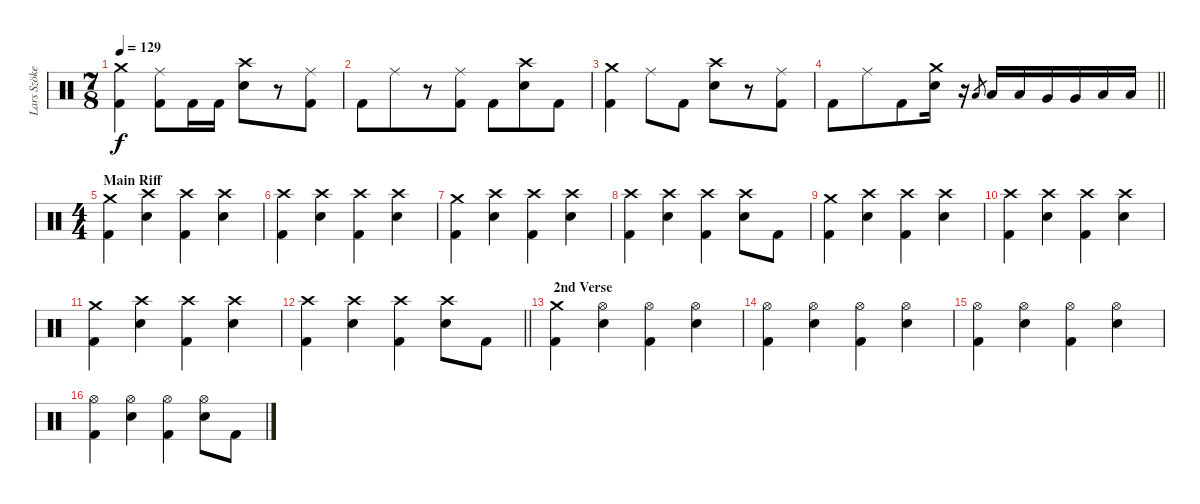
\track ("Lars Szöke" "Lars Szöke") {instrument percussion}
\staff {score}
\articulation defaults
\ts (7 8)
\tempo 129
\clef neutral
\ks c
("Crash medium (hit)" "Kick (hit) 2").4{dy f} ("Ride (middle)" "Kick (hit) 2").8 "Kick (hit) 2".16 "Kick (hit) 2".16 ("Crash high (hit)" "Snare (hit) 2").8 r.8 ("Ride (middle)" "Kick (hit) 2").8 |
"Kick (hit) 2".8 "Ride (middle)".8 r.8 ("Ride (middle)" "Kick (hit) 2").8 "Kick (hit) 2".8 ("Crash high (hit)" "Snare (hit) 2").8 "Kick (hit) 2".8 |
("Crash medium (hit)" "Kick (hit) 2").4 "Ride (middle)".8 "Kick (hit) 2".8 ("Crash high (hit)" "Snare (hit) 2").8 r.8 ("Ride (middle)" "Kick (hit) 2").8 |
\barLineRight lightlight "Kick (hit) 2".8 "Ride (middle)".8 "Kick (hit) 2".8
("Crash medium (hit)" "Snare (hit) 2").16 r.16 "Low Tom (hit)".8{gr} "Low Tom (hit)".16 "Low Tom (hit)".16 "Very Low Tom (hit)".16 "Very Low Tom (hit)".16 "Low Floor Tom (hit)".16 "Low Floor Tom (hit)".16 |
\ts (4 4)
\section ("" "Main Riff")
("Crash medium (hit)" "Kick (hit) 2").4 ("Crash high (hit)" "Snare (hit) 2").4 ("Crash high (hit)" "Kick (hit) 2").4 ("Crash high (hit)" "Snare (hit) 2").4 |
("Crash high (hit)" "Kick (hit) 2").4 ("Crash high (hit)" "Snare (hit) 2").4 ("Crash high (hit)" "Kick (hit) 2").4 ("Crash high (hit)" "Snare (hit) 2").4 |
("Crash medium (hit)" "Kick (hit) 2").4 ("Crash high (hit)" "Snare (hit) 2").4 ("Crash high (hit)" "Kick (hit) 2").4 ("Crash high (hit)" "Snare (hit) 2").4 |
("Crash high (hit)" "Kick (hit) 2").4 ("Crash high (hit)" "Snare (hit) 2").4 ("Crash high (hit)" "Kick (hit) 2").4 ("Crash high (hit)" "Snare (hit) 2").8 "Kick (hit) 2".8 |
("Crash medium (hit)" "Kick (hit) 2").4 ("Crash high (hit)" "Snare (hit) 2").4 ("Crash high (hit)" "Kick (hit) 2").4 ("Crash high (hit)" "Snare (hit) 2").4 |
("Crash high (hit)" "Kick (hit) 2").4 ("Crash high (hit)" "Snare (hit) 2").4 ("Crash high (hit)" "Kick (hit) 2").4 ("Crash high (hit)" "Snare (hit) 2").4 |
("Crash medium (hit)" "Kick (hit) 2").4 ("Crash high (hit)" "Snare (hit) 2").4 ("Crash high (hit)" "Kick (hit) 2").4 ("Crash high (hit)" "Snare (hit) 2").4 |
\barLineRight lightlight
("Crash high (hit)" "Kick (hit) 2").4 ("Crash high (hit)" "Snare (hit) 2").4 ("Crash high (hit)" "Kick (hit) 2").4 ("Crash high (hit)" "Snare (hit) 2").8 "Kick (hit) 2".8 |
\section ("" " 2nd Verse")
("Crash medium (hit)" "Kick (hit) 2").4 ("Hi-Hat (open)" "Snare (hit) 2").4 ("Hi-Hat (open)" "Kick (hit) 2").4 ("Hi-Hat (open)" "Snare (hit) 2").4 |
("Hi-Hat (open)" "Kick (hit) 2").4 ("Hi-Hat (open)" "Snare (hit) 2").4 ("Hi-Hat (open)" "Kick (hit) 2").4 ("Hi-Hat (open)" "Snare (hit) 2").4 |
("Hi-Hat (open)" "Kick (hit) 2").4 ("Hi-Hat (open)" "Snare (hit) 2").4 ("Hi-Hat (open)" "Kick (hit) 2").4 ("Hi-Hat (open)" "Snare (hit) 2").4 |
("Hi-Hat (open)" "Kick (hit) 2").4 ("Hi-Hat (open)" "Snare (hit) 2").4 ("Hi-Hat (open)" "Kick (hit) 2").4 ("Hi-Hat (open)" "Snare (hit) 2").8 "Kick (hit) 2".8
